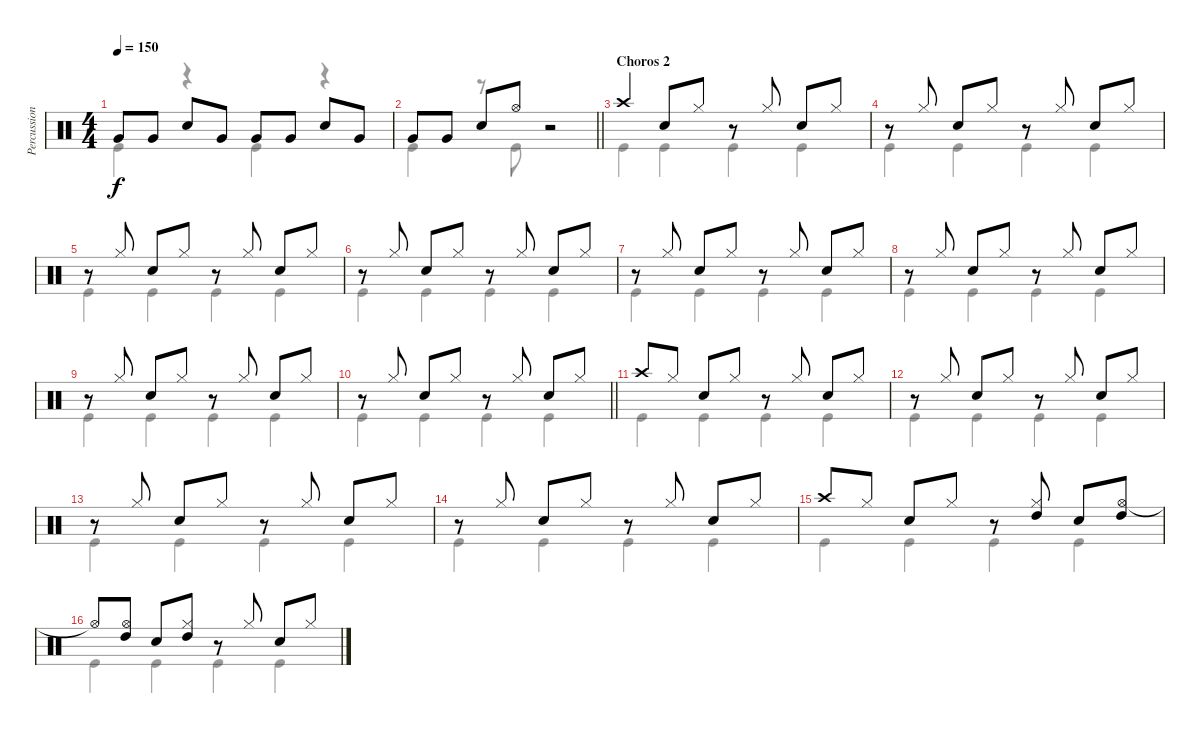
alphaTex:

\track ("Percussion" "Percussion") {instrument percussion}
\staff {score}
\articulation defaults
\voice
\ts (4 4)
\tempo 150
\clef neutral
\ks c "Very Low Tom (hit)".8{dy f} "Very Low Tom (hit)".8 "Snare (hit) 2".8 "Very Low Tom (hit)".8 "Very Low Tom (hit)".8 "Very Low Tom (hit)".8 "Snare (hit) 2".8 "Very Low Tom (hit)".8
|
\barLineRight lightlight "Very Low Tom (hit)".8 "Very Low Tom (hit)".8 "Snare (hit) 2".8 "Hi-Hat (open)".8
r.2 |
\section ("" "Choros 2")
"Crash high (hit)".4 "Snare (hit) 2".8 "Hi-Hat (closed)".8 r.8 "Hi-Hat (closed)".8 "Snare (hit) 2".8 "Hi-Hat (closed)".8 |
r.8 "Hi-Hat (closed)".8 "Snare (hit) 2".8 "Hi-Hat (closed)".8 r.8 "Hi-Hat (closed)".8 "Snare (hit) 2".8 "Hi-Hat (closed)".8 |
r.8 "Hi-Hat (closed)".8 "Snare (hit) 2".8 "Hi-Hat (closed)".8 r.8 "Hi-Hat (closed)".8 "Snare (hit) 2".8 "Hi-Hat (closed)".8 |
r.8 "Hi-Hat (closed)".8 "Snare (hit) 2".8 "Hi-Hat (closed)".8 r.8 "Hi-Hat (closed)".8 "Snare (hit) 2".8 "Hi-Hat (closed)".8 |
r.8 "Hi-Hat (closed)".8 "Snare (hit) 2".8 "Hi-Hat (closed)".8 r.8 "Hi-Hat (closed)".8 "Snare (hit) 2".8 "Hi-Hat (closed)".8 |
r.8 "Hi-Hat (closed)".8 "Snare (hit) 2".8 "Hi-Hat (closed)".8 r.8 "Hi-Hat (closed)".8 "Snare (hit) 2".8 "Hi-Hat (closed)".8 |
r.8 "Hi-Hat (closed)".8 "Snare (hit) 2".8 "Hi-Hat (closed)".8 r.8 "Hi-Hat (closed)".8 "Snare (hit) 2".8 "Hi-Hat (closed)".8 |
\barLineRight lightlight
r.8 "Hi-Hat (closed)".8 "Snare (hit) 2".8 "Hi-Hat (closed)".8 r.8 "Hi-Hat (closed)".8 "Snare (hit) 2".8 "Hi-Hat (closed)".8 |
"Crash high (hit)".8 "Hi-Hat (closed)".8 "Snare (hit) 2".8 "Hi-Hat (closed)".8 r.8 "Hi-Hat (closed)".8 "Snare (hit) 2".8 "Hi-Hat (closed)".8 |
r.8 "Hi-Hat (closed)".8 "Snare (hit) 2".8 "Hi-Hat (closed)".8 r.8 "Hi-Hat (closed)".8 "Snare (hit) 2".8 "Hi-Hat (closed)".8 |
r.8 "Hi-Hat (closed)".8 "Snare (hit) 2".8 "Hi-Hat (closed)".8 r.8 "Hi-Hat (closed)".8 "Snare (hit) 2".8 "Hi-Hat (closed)".8 |
r.8 "Hi-Hat (closed)".8 "Snare (hit) 2".8 "Hi-Hat (closed)".8 r.8 "Hi-Hat (closed)".8 "Snare (hit) 2".8 "Hi-Hat (closed)".8 |
"Crash high (hit)".8 "Hi-Hat (closed)".8 "Snare (hit) 2".8 "Hi-Hat (closed)".8 r.8 ("High Tom (hit)" "Hi-Hat (closed)").8 "Snare (hit) 2".8 ("Hi-Hat (open)" "High Tom (hit)").8 |
"Hi-Hat (open)"{t}.8 ("Hi-Hat (open)" "High Tom (hit)").8 "Snare (hit) 2".8 ("Hi-Hat (closed)" "High Tom (hit)").8 r.8 "Hi-Hat (closed)".8 "Snare (hit) 2".8 "Hi-Hat (closed)".8
\voice
\clef neutral
\ottava regular
\simile none
\ks c "Kick (hit)".4{dy f}
r.4 "Kick (hit)".4 r.4 |
\barLineRight lightlight "Kick (hit)".4
r.8 "Kick (hit)".8 r.2 |
"Kick (hit)".4 "Kick (hit)".4 "Kick (hit)".4 "Kick (hit)".4 |
"Kick (hit)".4 "Kick (hit)".4 "Kick (hit)".4 "Kick (hit)".4 |
"Kick (hit)".4 "Kick (hit)".4 "Kick (hit)".4 "Kick (hit)".4 |
"Kick (hit)".4 "Kick (hit)".4 "Kick (hit)".4 "Kick (hit)".4 |
"Kick (hit)".4 "Kick (hit)".4 "Kick (hit)".4 "Kick (hit)".4 |
"Kick (hit)".4 "Kick (hit)".4 "Kick (hit)".4 "Kick (hit)".4 |
"Kick (hit)".4 "Kick (hit)".4 "Kick (hit)".4 "Kick (hit)".4 |
\barLineRight lightlight "Kick (hit)".4 "Kick (hit)".4 "Kick (hit)".4 "Kick (hit)".4
|
"Kick (hit)".4 "Kick (hit)".4 "Kick (hit)".4 "Kick (hit)".4 |
"Kick (hit)".4 "Kick (hit)".4 "Kick (hit)".4 "Kick (hit)".4 |
"Kick (hit)".4 "Kick (hit)".4 "Kick (hit)".4 "Kick (hit)".4 |
"Kick (hit)".4 "Kick (hit)".4 "Kick (hit)".4 "Kick (hit)".4 |
"Kick (hit)".4 "Kick (hit)".4 "Kick (hit)".4 "Kick (hit)".4 |
"Kick (hit)".4 "Kick (hit)".4 "Kick (hit)".4 "Kick (hit)".4
